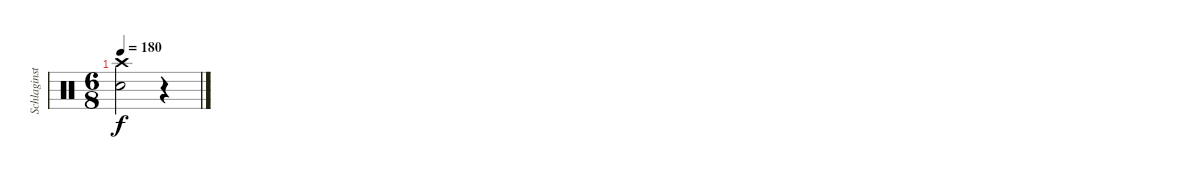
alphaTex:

\track ("Schlaginstrumente - Auswahl" "Schlaginst") {instrument percussion}
\staff {score}
\articulation defaults
\ts (6 8)
\tempo 180
\clef neutral
\ks c
("Crash high (hit)" "Snare (hit) 2").2{dy f} r.4
